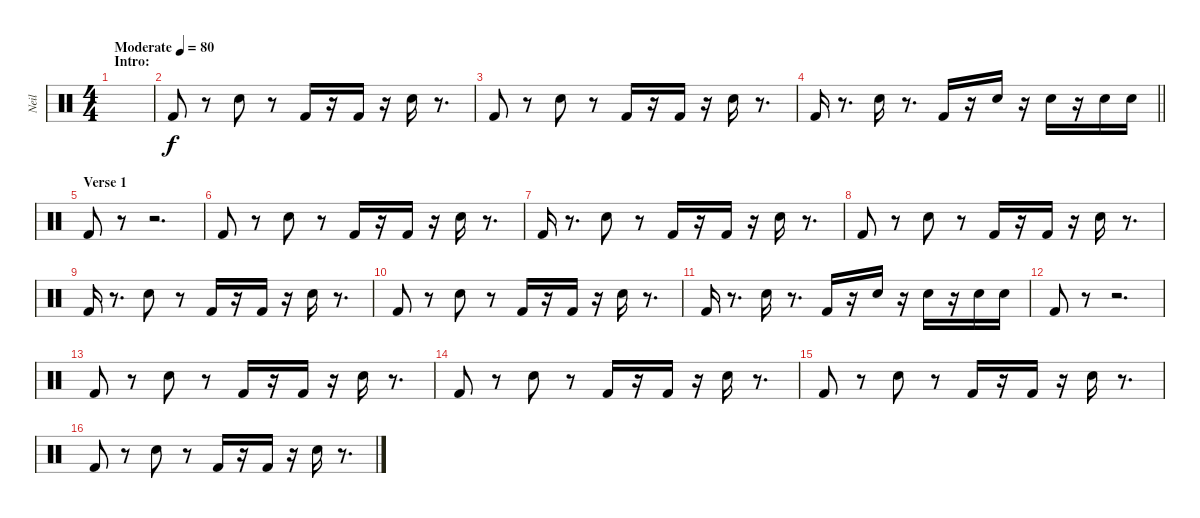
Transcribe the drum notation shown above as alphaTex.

\track ("Neil" "Neil") {instrument percussion}
\staff {score}
\articulation defaults
\ts (4 4)
\section ("" "Intro:")
\tempo (80 "Moderate")
\clef neutral
\ks c
|
"Kick (hit) 2".8 r.8 "Electric Snare (hit)".8 r.8 "Kick (hit) 2".16 r.16 "Kick (hit) 2".16 r.16 "Electric Snare (hit)".16 r.8{d} |
"Kick (hit) 2".8 r.8 "Electric Snare (hit)".8 r.8 "Kick (hit) 2".16 r.16 "Kick (hit) 2".16 r.16 "Electric Snare (hit)".16 r.8{d} |
\barLineRight lightlight "Kick (hit) 2".16
r.8{d} "Electric Snare (hit)".16 r.8{d} "Kick (hit) 2".16 r.16 "Electric Snare (hit)".16 r.16 "Electric Snare (hit)".16 r.16 "Electric Snare (hit)".16 "Electric Snare (hit)".16 |
\section ("" "Verse 1")
"Kick (hit) 2".8 r.8 r.2{d} |
"Kick (hit) 2".8 r.8 "Electric Snare (hit)".8 r.8 "Kick (hit) 2".16 r.16 "Kick (hit) 2".16 r.16 "Electric Snare (hit)".16 r.8{d} |
"Kick (hit) 2".16 r.8{d} "Electric Snare (hit)".8 r.8 "Kick (hit) 2".16 r.16 "Kick (hit) 2".16 r.16 "Electric Snare (hit)".16 r.8{d} |
"Kick (hit) 2".8 r.8 "Electric Snare (hit)".8 r.8 "Kick (hit) 2".16 r.16 "Kick (hit) 2".16 r.16 "Electric Snare (hit)".16 r.8{d} |
"Kick (hit) 2".16 r.8{d} "Electric Snare (hit)".8 r.8 "Kick (hit) 2".16 r.16 "Kick (hit) 2".16 r.16 "Electric Snare (hit)".16 r.8{d} |
"Kick (hit) 2".8 r.8 "Electric Snare (hit)".8 r.8 "Kick (hit) 2".16 r.16 "Kick (hit) 2".16 r.16 "Electric Snare (hit)".16 r.8{d} |
"Kick (hit) 2".16 r.8{d} "Electric Snare (hit)".16 r.8{d} "Kick (hit) 2".16 r.16 "Electric Snare (hit)".16 r.16 "Electric Snare (hit)".16 r.16 "Electric Snare (hit)".16 "Electric Snare (hit)".16 |
"Kick (hit) 2".8 r.8 r.2{d} |
"Kick (hit) 2".8 r.8 "Electric Snare (hit)".8 r.8 "Kick (hit) 2".16 r.16 "Kick (hit) 2".16 r.16 "Electric Snare (hit)".16 r.8{d} |
"Kick (hit) 2".8 r.8 "Electric Snare (hit)".8 r.8 "Kick (hit) 2".16 r.16 "Kick (hit) 2".16 r.16 "Electric Snare (hit)".16 r.8{d} |
"Kick (hit) 2".8 r.8 "Electric Snare (hit)".8 r.8 "Kick (hit) 2".16 r.16 "Kick (hit) 2".16 r.16 "Electric Snare (hit)".16 r.8{d} |
"Kick (hit) 2".8 r.8 "Electric Snare (hit)".8 r.8 "Kick (hit) 2".16 r.16 "Kick (hit) 2".16 r.16 "Electric Snare (hit)".16 r.8{d}
